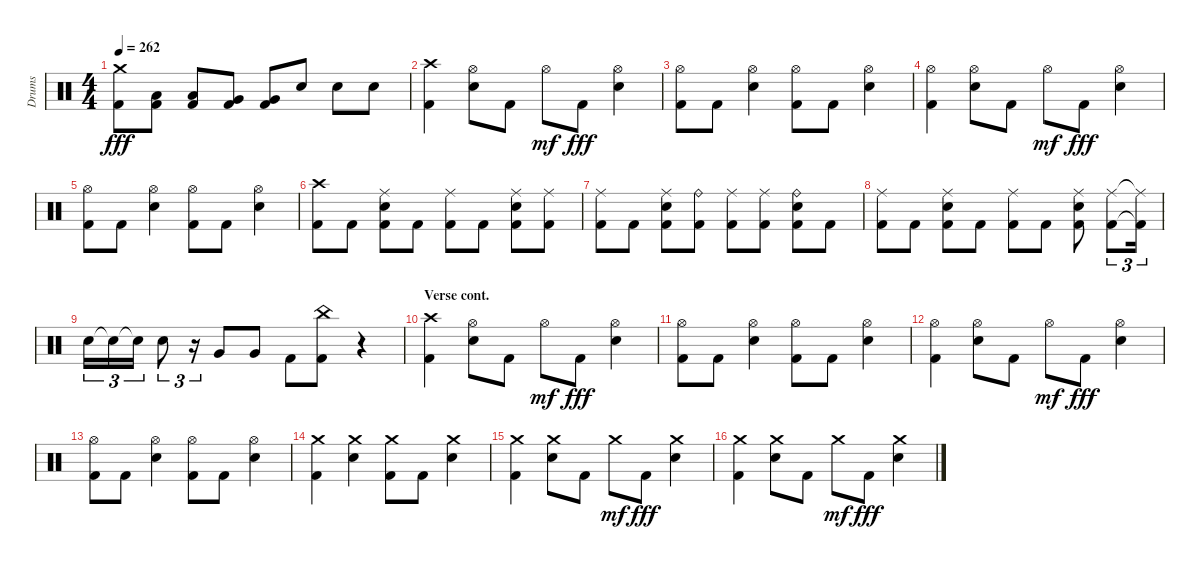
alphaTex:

\track ("Drums" "Drums") {instrument percussion}
\staff {score}
\articulation defaults
\ts (4 4)
\tempo 262
\clef neutral
\ks aminor
("Kick (hit) 2" "Crash medium (hit)").8{dy fff} ("Kick (hit) 2" "Low Tom (hit)").8 ("Kick (hit) 2" "Low Tom (hit)").8 ("Kick (hit) 2" "Very Low Tom (hit)").8 ("Kick (hit) 2" "Very Low Tom (hit)").8 "Snare (hit) 2".8 "Snare (hit) 2".8 "Snare (hit) 2".8 |
("Kick (hit) 2" "Crash high (hit)").4 ("Snare (hit) 2" "Hi-Hat (open)").8 "Kick (hit) 2".8 "Hi-Hat (open)".8{dy mf} "Kick (hit) 2".8{dy fff} ("Snare (hit) 2" "Hi-Hat (open)").4 |
("Kick (hit) 2" "Hi-Hat (open)").8 "Kick (hit) 2".8 ("Snare (hit) 2" "Hi-Hat (open)").4 ("Kick (hit) 2" "Hi-Hat (open)").8 "Kick (hit) 2".8 ("Snare (hit) 2" "Hi-Hat (open)").4 |
("Kick (hit) 2" "Hi-Hat (open)").4 ("Snare (hit) 2" "Hi-Hat (open)").8 "Kick (hit) 2".8 "Hi-Hat (open)".8{dy mf} "Kick (hit) 2".8{dy fff} ("Snare (hit) 2" "Hi-Hat (open)").4 |
("Kick (hit) 2" "Hi-Hat (open)").8 "Kick (hit) 2".8 ("Snare (hit) 2" "Hi-Hat (open)").4 ("Kick (hit) 2" "Hi-Hat (open)").8 "Kick (hit) 2".8 ("Snare (hit) 2" "Hi-Hat (open)").4 |
("Kick (hit) 2" "Crash high (hit)").8 "Kick (hit) 2".8 ("Kick (hit) 2" "Snare (hit) 2" "Ride (middle)").8 "Kick (hit) 2".8 ("Kick (hit) 2" "Ride (middle)").8 "Kick (hit) 2".8 ("Kick (hit) 2" "Snare (hit) 2" "Ride (middle)").8 ("Kick (hit) 2" "Ride (middle)").8 |
("Kick (hit) 2" "Ride (middle)").8 "Kick (hit) 2".8 ("Kick (hit) 2" "Snare (hit) 2" "Ride (middle)").8 ("Kick (hit) 2" "Ride (bell)").8 ("Kick (hit) 2" "Ride (middle)").8 ("Kick (hit) 2" "Ride (middle)").8 ("Kick (hit) 2" "Snare (hit) 2" "Ride (bell)").8 "Kick (hit) 2".8 |
("Kick (hit) 2" "Ride (middle)").8 "Kick (hit) 2".8 ("Kick (hit) 2" "Snare (hit) 2" "Ride (middle)").8 "Kick (hit) 2".8 ("Kick (hit) 2" "Ride (middle)").8 "Kick (hit) 2".8 ("Kick (hit) 2" "Snare (hit) 2" "Ride (middle)").8 ("Kick (hit) 2" "Ride (middle)").8{tu (3 2)} ("Kick (hit) 2"{t} "Ride (middle)"{t}).16{tu (3 2)} |
"Snare (hit) 2".16{tu (3 2)} "Snare (hit) 2"{t}.16{tu (3 2)} "Snare (hit) 2"{t}.16{tu (3 2)} "Snare (hit) 2".8{tu (3 2)} r.16{tu (3 2)} "Very Low Tom (hit)".8 "Very Low Tom (hit)".8 "Kick (hit) 2".8 ("Kick (hit) 2" "China (hit)").8 r.4 |
\section ("" "Verse cont.")
("Kick (hit) 2" "Crash high (hit)").4 ("Snare (hit) 2" "Hi-Hat (open)").8 "Kick (hit) 2".8 "Hi-Hat (open)".8{dy mf} "Kick (hit) 2".8{dy fff} ("Snare (hit) 2" "Hi-Hat (open)").4 |
("Kick (hit) 2" "Hi-Hat (open)").8 "Kick (hit) 2".8 ("Snare (hit) 2" "Hi-Hat (open)").4 ("Kick (hit) 2" "Hi-Hat (open)").8 "Kick (hit) 2".8 ("Snare (hit) 2" "Hi-Hat (open)").4 |
("Kick (hit) 2" "Hi-Hat (open)").4 ("Snare (hit) 2" "Hi-Hat (open)").8 "Kick (hit) 2".8 "Hi-Hat (open)".8{dy mf} "Kick (hit) 2".8{dy fff} ("Snare (hit) 2" "Hi-Hat (open)").4 |
("Kick (hit) 2" "Hi-Hat (open)").8 "Kick (hit) 2".8 ("Snare (hit) 2" "Hi-Hat (open)").4 ("Kick (hit) 2" "Hi-Hat (open)").8 "Kick (hit) 2".8 ("Snare (hit) 2" "Hi-Hat (open)").4 |
("Kick (hit) 2" "Crash medium (hit)").4 ("Snare (hit) 2" "Crash medium (hit)").4 ("Kick (hit) 2" "Crash medium (hit)").8 "Kick (hit) 2".8 ("Snare (hit) 2" "Crash medium (hit)").4 |
("Kick (hit) 2" "Crash medium (hit)").4 ("Snare (hit) 2" "Crash medium (hit)").8 "Kick (hit) 2".8 "Crash medium (hit)".8{dy mf} "Kick (hit) 2".8{dy fff} ("Snare (hit) 2" "Crash medium (hit)").4 |
("Kick (hit) 2" "Crash medium (hit)").4 ("Snare (hit) 2" "Crash medium (hit)").8 "Kick (hit) 2".8 "Crash medium (hit)".8{dy mf} "Kick (hit) 2".8{dy fff} ("Snare (hit) 2" "Crash medium (hit)").4
